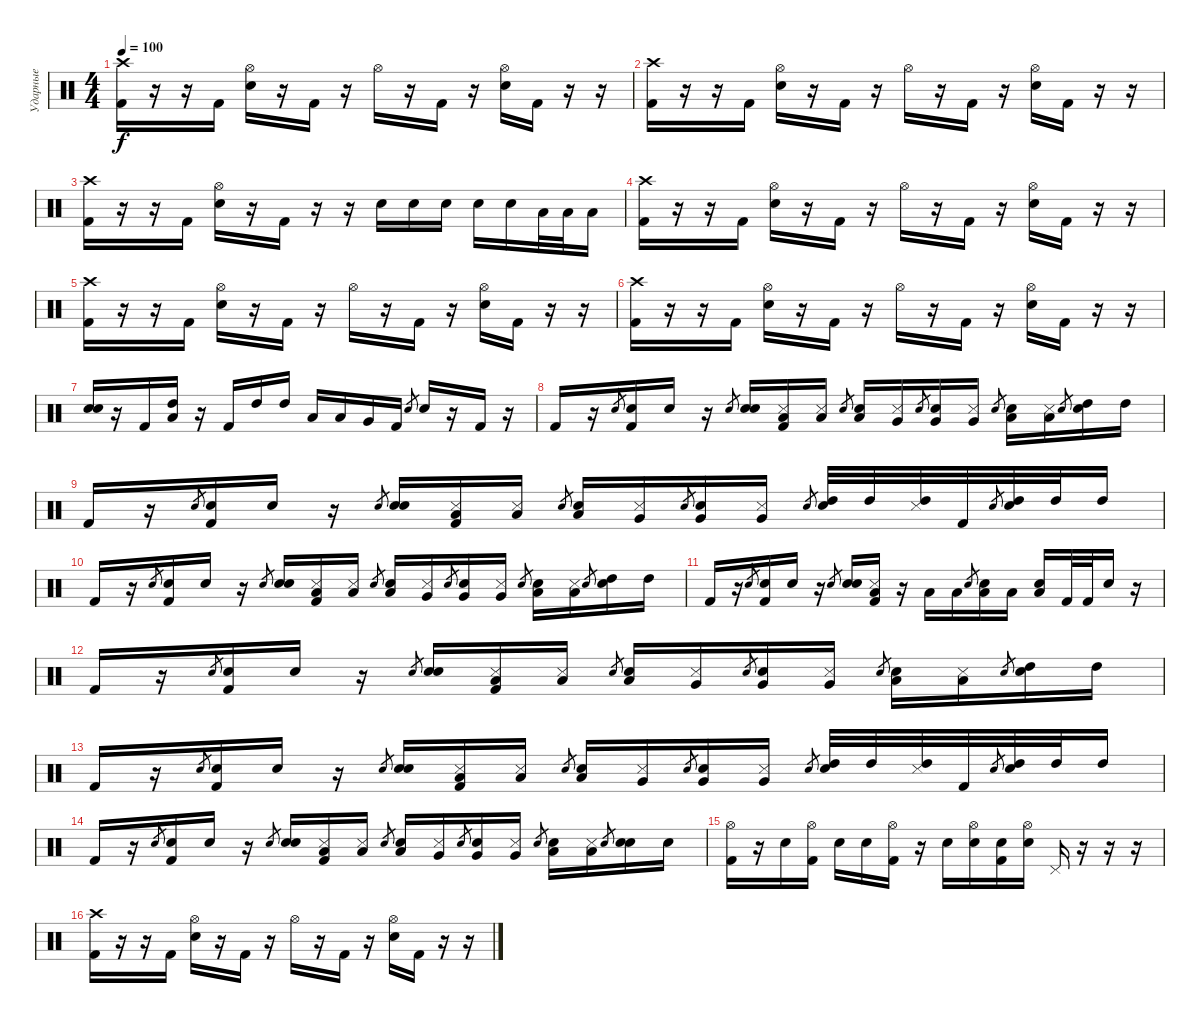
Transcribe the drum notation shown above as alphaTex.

\track ("Ударные" "Ударные") {instrument percussion}
\staff {score}
\articulation defaults
\ts (4 4)
\tempo 100
\clef neutral
\ks c
("Crash high (hit)" "Kick (hit) 2").16{dy f} r.16 r.16 "Kick (hit) 2".16 ("Hi-Hat (open)" "Electric Snare (hit)").16 r.16 "Kick (hit) 2".16 r.16 "Hi-Hat (open)".16 r.16 "Kick (hit) 2".16 r.16 ("Hi-Hat (open)" "Electric Snare (hit)").16 "Kick (hit) 2".16 r.16 r.16 |
("Crash high (hit)" "Kick (hit) 2").16 r.16 r.16 "Kick (hit) 2".16 ("Hi-Hat (open)" "Electric Snare (hit)").16 r.16 "Kick (hit) 2".16 r.16 "Hi-Hat (open)".16 r.16 "Kick (hit) 2".16 r.16 ("Hi-Hat (open)" "Electric Snare (hit)").16 "Kick (hit) 2".16 r.16 r.16 |
("Crash high (hit)" "Kick (hit) 2").16 r.16 r.16 "Kick (hit) 2".16 ("Hi-Hat (open)" "Electric Snare (hit)").16 r.16 "Kick (hit) 2".16 r.16 r.16 "Electric Snare (hit)".16 "Electric Snare (hit)".16 "Electric Snare (hit)".16 "Electric Snare (hit)".16 "Electric Snare (hit)".16 "Low Tom (hit)".32 "Low Tom (hit)".32 "Low Tom (hit)".16 |
("Crash high (hit)" "Kick (hit) 2").16 r.16 r.16 "Kick (hit) 2".16 ("Hi-Hat (open)" "Electric Snare (hit)").16 r.16 "Kick (hit) 2".16 r.16 "Hi-Hat (open)".16 r.16 "Kick (hit) 2".16 r.16 ("Hi-Hat (open)" "Electric Snare (hit)").16 "Kick (hit) 2".16 r.16 r.16 |
("Crash high (hit)" "Kick (hit) 2").16 r.16 r.16 "Kick (hit) 2".16 ("Hi-Hat (open)" "Electric Snare (hit)").16 r.16 "Kick (hit) 2".16 r.16 "Hi-Hat (open)".16 r.16 "Kick (hit) 2".16 r.16 ("Hi-Hat (open)" "Electric Snare (hit)").16 "Kick (hit) 2".16 r.16 r.16 |
("Crash high (hit)" "Kick (hit) 2").16 r.16 r.16 "Kick (hit) 2".16 ("Hi-Hat (open)" "Electric Snare (hit)").16 r.16 "Kick (hit) 2".16 r.16 "Hi-Hat (open)".16 r.16 "Kick (hit) 2".16 r.16 ("Hi-Hat (open)" "Electric Snare (hit)").16 "Kick (hit) 2".16 r.16 r.16 |
("Electric Snare (hit)" "Electric Snare (hit)").16 r.16 "Kick (hit) 2".16 ("Low Tom (hit)" "High Tom (hit)").16 r.16 "Kick (hit) 2".16 "High Tom (hit)".16 "High Tom (hit)".16 "Low Tom (hit)".16 "Low Tom (hit)".16 "Very Low Tom (hit)".16 "Kick (hit) 2".16 "Electric Snare (hit)".8{gr} "Electric Snare (hit)".16 r.16 "Kick (hit) 2".16 r.16 |
"Kick (hit) 2".16 r.16 "Hand Clap (hit)".8{gr} ("Hand Clap (hit)" "Kick (hit) 2").16 "Electric Snare (hit)".16 r.16 "Hand Clap (hit)".8{gr} ("Hand Clap (hit)" "Electric Snare (hit)").16 ("Snare (side stick) 3" "Low Tom (hit)" "Kick (hit) 2").16 ("Snare (side stick) 3" "Low Tom (hit)").16 "Hand Clap (hit)".8{gr} ("Hand Clap (hit)" "Low Tom (hit)").16 ("Snare (side stick) 3" "Very Low Tom (hit)").16 "Hand Clap (hit)".8{gr} ("Hand Clap (hit)" "Very Low Tom (hit)").16 ("Snare (side stick) 3" "Very Low Tom (hit)").16 "Hand Clap (hit)".8{gr} ("Hand Clap (hit)" "Low Tom (hit)").16 ("Snare (side stick) 3" "Low Tom (hit)").16 "Hand Clap (hit)".8{gr} ("Hand Clap (hit)" "High Tom (hit)").16 "High Tom (hit)".16 |
"Kick (hit) 2".16 r.16 "Hand Clap (hit)".8{gr} ("Hand Clap (hit)" "Kick (hit) 2").16 "Electric Snare (hit)".16 r.16 "Hand Clap (hit)".8{gr} ("Hand Clap (hit)" "Electric Snare (hit)").16 ("Snare (side stick) 3" "Low Tom (hit)" "Kick (hit) 2").16 ("Snare (side stick) 3" "Low Tom (hit)").16 "Hand Clap (hit)".8{gr} ("Hand Clap (hit)" "Low Tom (hit)").16 ("Snare (side stick) 3" "Very Low Tom (hit)").16 "Hand Clap (hit)".8{gr} ("Hand Clap (hit)" "Very Low Tom (hit)").16 ("Snare (side stick) 3" "Very Low Tom (hit)").16 "Hand Clap (hit)".8{gr} ("Hand Clap (hit)" "High Tom (hit)").32 "High Tom (hit)".32 ("Snare (side stick) 3" "High Tom (hit)").32 "Kick (hit) 2".32 "Hand Clap (hit)".8{gr} ("Hand Clap (hit)" "High Tom (hit)").32 "High Tom (hit)".32 "High Tom (hit)".16 |
"Kick (hit) 2".16 r.16 "Hand Clap (hit)".8{gr} ("Hand Clap (hit)" "Kick (hit) 2").16 "Electric Snare (hit)".16 r.16 "Hand Clap (hit)".8{gr} ("Hand Clap (hit)" "Electric Snare (hit)").16 ("Snare (side stick) 3" "Low Tom (hit)" "Kick (hit) 2").16 ("Snare (side stick) 3" "Low Tom (hit)").16 "Hand Clap (hit)".8{gr} ("Hand Clap (hit)" "Low Tom (hit)").16 ("Snare (side stick) 3" "Very Low Tom (hit)").16 "Hand Clap (hit)".8{gr} ("Hand Clap (hit)" "Very Low Tom (hit)").16 ("Snare (side stick) 3" "Very Low Tom (hit)").16 "Hand Clap (hit)".8{gr} ("Hand Clap (hit)" "Low Tom (hit)").16 ("Snare (side stick) 3" "Low Tom (hit)").16 "Hand Clap (hit)".8{gr} ("Hand Clap (hit)" "High Tom (hit)").16 "High Tom (hit)".16 |
"Kick (hit) 2".16 r.16 "Hand Clap (hit)".8{gr} ("Hand Clap (hit)" "Kick (hit) 2").16 "Electric Snare (hit)".16 r.16 "Hand Clap (hit)".8{gr} ("Hand Clap (hit)" "Electric Snare (hit)").16 ("Snare (side stick) 3" "Low Tom (hit)" "Kick (hit) 2").16 r.16 "Low Tom (hit)".16 "Low Tom (hit)".16 "Hand Clap (hit)".8{gr} ("Hand Clap (hit)" "Low Tom (hit)").16 "Low Tom (hit)".16 ("Low Tom (hit)" "Electric Snare (hit)").16 "Kick (hit) 2".32 "Kick (hit) 2".32 "Electric Snare (hit)".16 r.16 |
"Kick (hit) 2".16 r.16 "Hand Clap (hit)".8{gr} ("Hand Clap (hit)" "Kick (hit) 2").16 "Electric Snare (hit)".16 r.16 "Hand Clap (hit)".8{gr} ("Hand Clap (hit)" "Electric Snare (hit)").16 ("Snare (side stick) 3" "Low Tom (hit)" "Kick (hit) 2").16 ("Snare (side stick) 3" "Low Tom (hit)").16 "Hand Clap (hit)".8{gr} ("Hand Clap (hit)" "Low Tom (hit)").16 ("Snare (side stick) 3" "Very Low Tom (hit)").16 "Hand Clap (hit)".8{gr} ("Hand Clap (hit)" "Very Low Tom (hit)").16 ("Snare (side stick) 3" "Very Low Tom (hit)").16 "Hand Clap (hit)".8{gr} ("Hand Clap (hit)" "Low Tom (hit)").16 ("Snare (side stick) 3" "Low Tom (hit)").16 "Hand Clap (hit)".8{gr} ("Hand Clap (hit)" "High Tom (hit)").16 "High Tom (hit)".16 |
"Kick (hit) 2".16 r.16 "Hand Clap (hit)".8{gr} ("Hand Clap (hit)" "Kick (hit) 2").16 "Electric Snare (hit)".16 r.16 "Hand Clap (hit)".8{gr} ("Hand Clap (hit)" "Electric Snare (hit)").16 ("Snare (side stick) 3" "Low Tom (hit)" "Kick (hit) 2").16 ("Snare (side stick) 3" "Low Tom (hit)").16 "Hand Clap (hit)".8{gr} ("Hand Clap (hit)" "Low Tom (hit)").16 ("Snare (side stick) 3" "Very Low Tom (hit)").16 "Hand Clap (hit)".8{gr} ("Hand Clap (hit)" "Very Low Tom (hit)").16 ("Snare (side stick) 3" "Very Low Tom (hit)").16 "Hand Clap (hit)".8{gr} ("Hand Clap (hit)" "High Tom (hit)").32 "High Tom (hit)".32 ("Snare (side stick) 3" "High Tom (hit)").32 "Kick (hit) 2".32 "Hand Clap (hit)".8{gr} ("Hand Clap (hit)" "High Tom (hit)").32 "High Tom (hit)".32 "High Tom (hit)".16 |
"Kick (hit) 2".16 r.16 "Hand Clap (hit)".8{gr} ("Hand Clap (hit)" "Kick (hit) 2").16 "Electric Snare (hit)".16 r.16 "Hand Clap (hit)".8{gr} ("Hand Clap (hit)" "Electric Snare (hit)").16 ("Snare (side stick) 3" "Low Tom (hit)" "Kick (hit) 2").16 ("Snare (side stick) 3" "Low Tom (hit)").16 "Hand Clap (hit)".8{gr} ("Hand Clap (hit)" "Low Tom (hit)").16 ("Snare (side stick) 3" "Very Low Tom (hit)").16 "Hand Clap (hit)".8{gr} ("Hand Clap (hit)" "Very Low Tom (hit)").16 ("Snare (side stick) 3" "Very Low Tom (hit)").16 "Hand Clap (hit)".8{gr} ("Hand Clap (hit)" "Low Tom (hit)").16 ("Snare (side stick) 3" "Low Tom (hit)").16 "Hand Clap (hit)".8{gr} ("Hand Clap (hit)" "Electric Snare (hit)").16 "Electric Snare (hit)".16 |
("Hi-Hat (open)" "Kick (hit) 2").16 r.16 "Electric Snare (hit)".16 ("Hi-Hat (open)" "Kick (hit) 2").16 "Electric Snare (hit)".16 "Electric Snare (hit)".16 ("Hi-Hat (open)" "Kick (hit) 2").16 r.16 "Electric Snare (hit)".16 ("Hi-Hat (open)" "Electric Snare (hit)").16 ("Electric Snare (hit)" "Kick (hit) 2").16 ("Hi-Hat (open)" "Electric Snare (hit)").16 "Pedal Hi-Hat (hit)".16 r.16 r.16 r.16 |
("Crash high (hit)" "Kick (hit) 2").16 r.16 r.16 "Kick (hit) 2".16 ("Hi-Hat (open)" "Electric Snare (hit)").16 r.16 "Kick (hit) 2".16 r.16 "Hi-Hat (open)".16 r.16 "Kick (hit) 2".16 r.16 ("Hi-Hat (open)" "Electric Snare (hit)").16 "Kick (hit) 2".16 r.16 r.16
